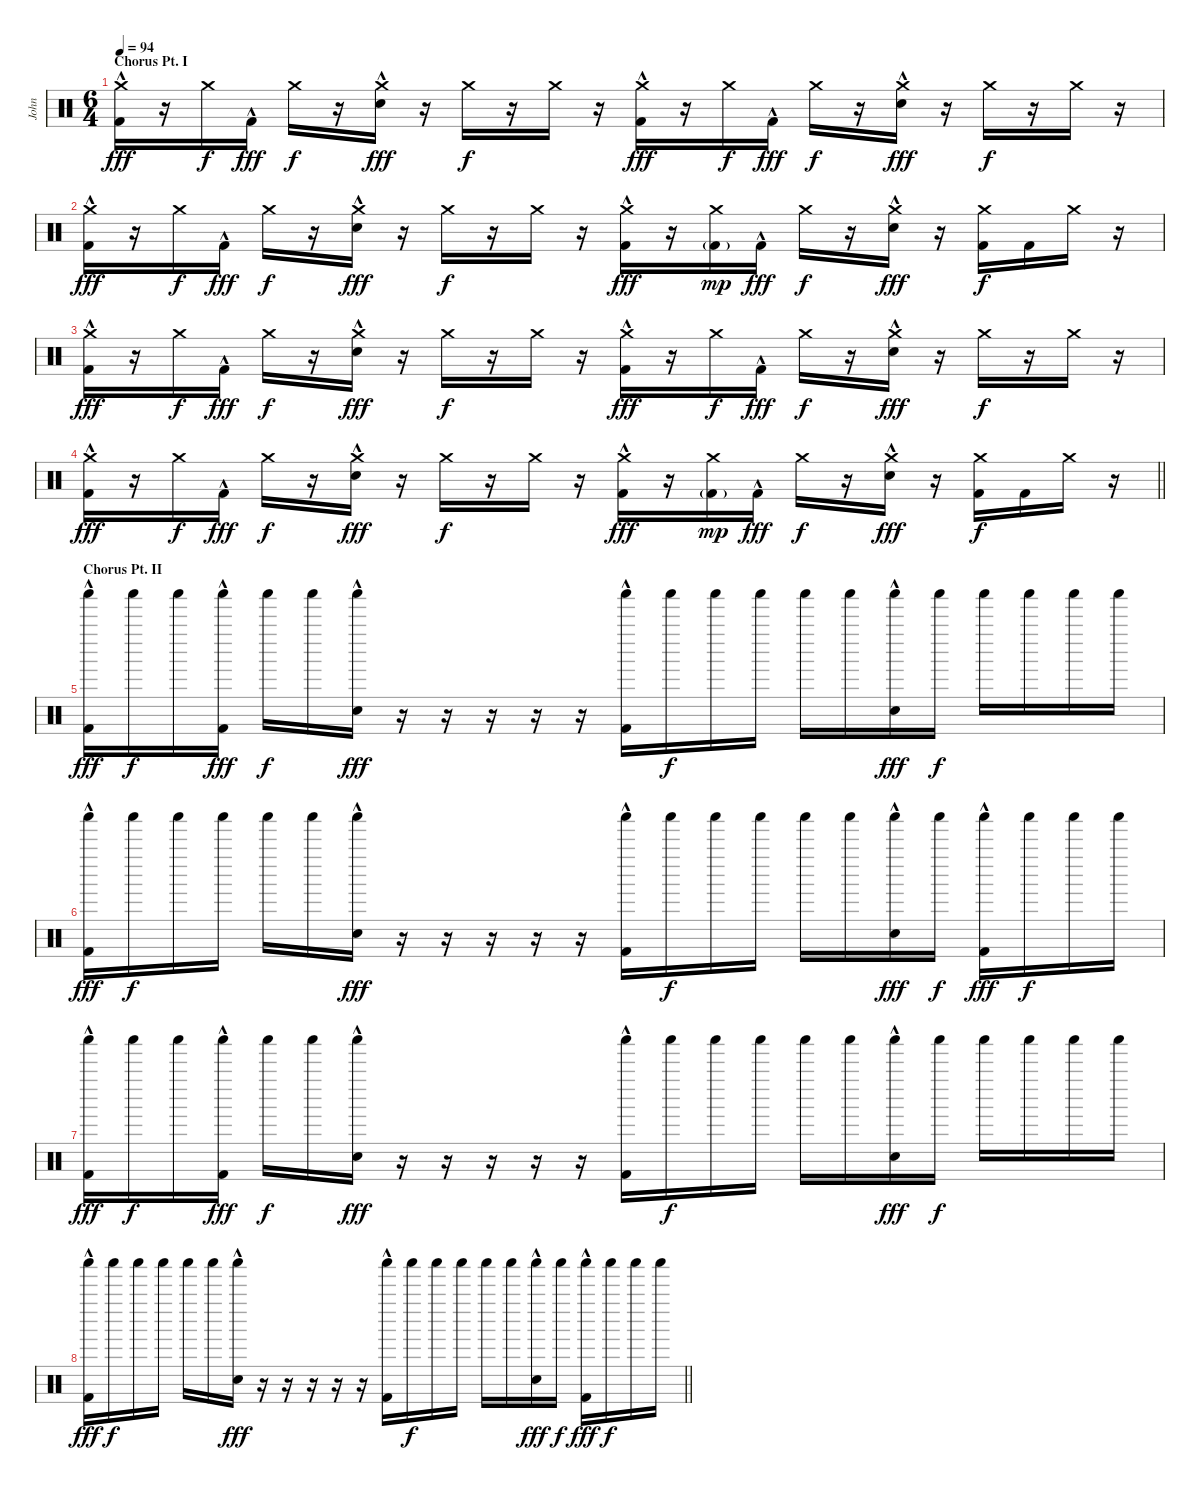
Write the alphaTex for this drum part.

\track ("John" "John") {instrument percussion}
\staff {score}
\articulation defaults
\ts (6 4)
\section ("" "Chorus Pt. I")
\tempo 94
\clef neutral
\ks c
("Crash medium (hit)" "Kick (hit) 2"{hac}).16{dy fff} r.16 "Crash medium (hit)".16{dy f} "Kick (hit) 2"{hac}.16{dy fff} "Crash medium (hit)".16{dy f} r.16 ("Crash medium (hit)" "Snare (hit) 2"{hac}).16{dy fff} r.16 "Crash medium (hit)".16{dy f} r.16 "Crash medium (hit)".16 r.16 ("Crash medium (hit)" "Kick (hit) 2"{hac}).16{dy fff} r.16 "Crash medium (hit)".16{dy f} "Kick (hit) 2"{hac}.16{dy fff} "Crash medium (hit)".16{dy f} r.16 ("Crash medium (hit)" "Snare (hit) 2"{hac}).16{dy fff} r.16 "Crash medium (hit)".16{dy f} r.16 "Crash medium (hit)".16 r.16 |
("Crash medium (hit)" "Kick (hit) 2"{hac}).16{dy fff} r.16 "Crash medium (hit)".16{dy f} "Kick (hit) 2"{hac}.16{dy fff} "Crash medium (hit)".16{dy f} r.16 ("Crash medium (hit)" "Snare (hit) 2"{hac}).16{dy fff} r.16 "Crash medium (hit)".16{dy f} r.16 "Crash medium (hit)".16 r.16 ("Crash medium (hit)" "Kick (hit) 2"{hac}).16{dy fff} r.16 ("Crash medium (hit)" "Kick (hit) 2"{g}).16{dy mp} "Kick (hit) 2"{hac}.16{dy fff} "Crash medium (hit)".16{dy f} r.16 ("Crash medium (hit)" "Snare (hit) 2"{hac}).16{dy fff} r.16 ("Crash medium (hit)" "Kick (hit) 2").16{dy f} "Kick (hit) 2".16 "Crash medium (hit)".16 r.16 |
("Crash medium (hit)" "Kick (hit) 2"{hac}).16{dy fff} r.16 "Crash medium (hit)".16{dy f} "Kick (hit) 2"{hac}.16{dy fff} "Crash medium (hit)".16{dy f} r.16 ("Crash medium (hit)" "Snare (hit) 2"{hac}).16{dy fff} r.16 "Crash medium (hit)".16{dy f} r.16 "Crash medium (hit)".16 r.16 ("Crash medium (hit)" "Kick (hit) 2"{hac}).16{dy fff} r.16 "Crash medium (hit)".16{dy f} "Kick (hit) 2"{hac}.16{dy fff} "Crash medium (hit)".16{dy f} r.16 ("Crash medium (hit)" "Snare (hit) 2"{hac}).16{dy fff} r.16 "Crash medium (hit)".16{dy f} r.16 "Crash medium (hit)".16 r.16 |
\barLineRight lightlight
("Crash medium (hit)" "Kick (hit) 2"{hac}).16{dy fff} r.16 "Crash medium (hit)".16{dy f} "Kick (hit) 2"{hac}.16{dy fff} "Crash medium (hit)".16{dy f} r.16 ("Crash medium (hit)" "Snare (hit) 2"{hac}).16{dy fff} r.16 "Crash medium (hit)".16{dy f} r.16 "Crash medium (hit)".16 r.16 ("Crash medium (hit)" "Kick (hit) 2"{hac}).16{dy fff} r.16 ("Crash medium (hit)" "Kick (hit) 2"{g}).16{dy mp} "Kick (hit) 2"{hac}.16{dy fff} "Crash medium (hit)".16{dy f} r.16 ("Crash medium (hit)" "Snare (hit) 2"{hac}).16{dy fff} r.16 ("Crash medium (hit)" "Kick (hit) 2").16{dy f} "Kick (hit) 2".16 "Crash medium (hit)".16 r.16 |
\section ("" "Chorus Pt. II")
("Shaker (hit)" "Kick (hit) 2"{hac}).16{dy fff} "Shaker (hit)".16{dy f} "Shaker (hit)".16 ("Shaker (hit)" "Kick (hit) 2"{hac}).16{dy fff} "Shaker (hit)".16{dy f} "Shaker (hit)".16 ("Shaker (hit)" "Snare (hit) 2"{hac}).16{dy fff} r.16 r.16 r.16 r.16 r.16 ("Shaker (hit)" "Kick (hit) 2"{hac}).16 "Shaker (hit)".16{dy f} "Shaker (hit)".16 "Shaker (hit)".16 "Shaker (hit)".16 "Shaker (hit)".16 ("Shaker (hit)" "Snare (hit) 2"{hac}).16{dy fff} "Shaker (hit)".16{dy f} "Shaker (hit)".16 "Shaker (hit)".16 "Shaker (hit)".16 "Shaker (hit)".16 |
("Shaker (hit)" "Kick (hit) 2"{hac}).16{dy fff} "Shaker (hit)".16{dy f} "Shaker (hit)".16 "Shaker (hit)".16 "Shaker (hit)".16 "Shaker (hit)".16 ("Shaker (hit)" "Snare (hit) 2"{hac}).16{dy fff} r.16 r.16 r.16 r.16 r.16 ("Shaker (hit)" "Kick (hit) 2"{hac}).16 "Shaker (hit)".16{dy f} "Shaker (hit)".16 "Shaker (hit)".16 "Shaker (hit)".16 "Shaker (hit)".16 ("Shaker (hit)" "Snare (hit) 2"{hac}).16{dy fff} "Shaker (hit)".16{dy f} ("Shaker (hit)" "Kick (hit) 2"{hac}).16{dy fff} "Shaker (hit)".16{dy f} "Shaker (hit)".16 "Shaker (hit)".16 |
("Shaker (hit)" "Kick (hit) 2"{hac}).16{dy fff} "Shaker (hit)".16{dy f} "Shaker (hit)".16 ("Shaker (hit)" "Kick (hit) 2"{hac}).16{dy fff} "Shaker (hit)".16{dy f} "Shaker (hit)".16 ("Shaker (hit)" "Snare (hit) 2"{hac}).16{dy fff} r.16 r.16 r.16 r.16 r.16 ("Shaker (hit)" "Kick (hit) 2"{hac}).16 "Shaker (hit)".16{dy f} "Shaker (hit)".16 "Shaker (hit)".16 "Shaker (hit)".16 "Shaker (hit)".16 ("Shaker (hit)" "Snare (hit) 2"{hac}).16{dy fff} "Shaker (hit)".16{dy f} "Shaker (hit)".16 "Shaker (hit)".16 "Shaker (hit)".16 "Shaker (hit)".16 |
\barLineRight lightlight
("Shaker (hit)" "Kick (hit) 2"{hac}).16{dy fff} "Shaker (hit)".16{dy f} "Shaker (hit)".16 "Shaker (hit)".16 "Shaker (hit)".16 "Shaker (hit)".16 ("Shaker (hit)" "Snare (hit) 2"{hac}).16{dy fff} r.16 r.16 r.16 r.16 r.16 ("Shaker (hit)" "Kick (hit) 2"{hac}).16 "Shaker (hit)".16{dy f} "Shaker (hit)".16 "Shaker (hit)".16 "Shaker (hit)".16 "Shaker (hit)".16 ("Shaker (hit)" "Snare (hit) 2"{hac}).16{dy fff} "Shaker (hit)".16{dy f} ("Shaker (hit)" "Kick (hit) 2"{hac}).16{dy fff} "Shaker (hit)".16{dy f} "Shaker (hit)".16 "Shaker (hit)".16
